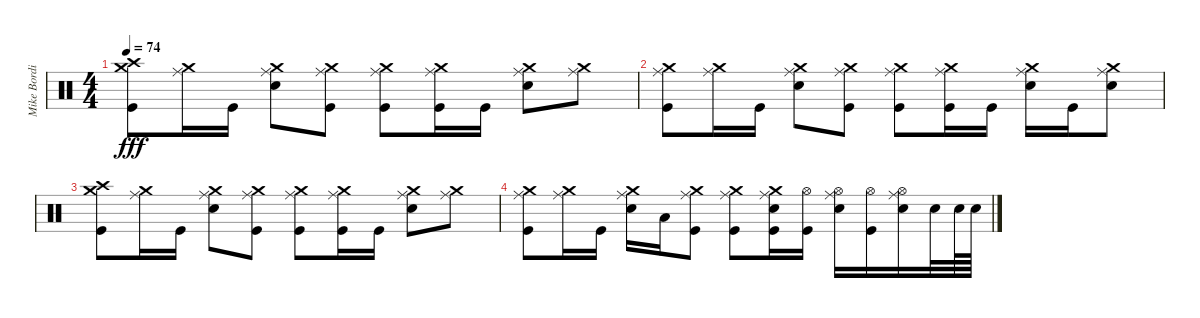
\track ("Mike Bordin" "Mike Bordi") {instrument percussion}
\staff {score}
\articulation defaults
\ts (4 4)
\tempo 74
\clef neutral
\ks c
("Crash medium (hit)" "Crash high (hit)" "Kick (hit)").8{dy fff} ("Crash medium (hit)" "Ride (middle)").16 "Kick (hit)".16 ("Crash medium (hit)" "Ride (middle)" "Snare (hit) 2").8 ("Crash medium (hit)" "Ride (middle)" "Kick (hit)").8 ("Crash medium (hit)" "Ride (middle)" "Kick (hit)").8 ("Crash medium (hit)" "Ride (middle)" "Kick (hit)").16 "Kick (hit)".16 ("Crash medium (hit)" "Ride (middle)" "Snare (hit) 2").8 ("Crash medium (hit)" "Ride (middle)").8 |
("Crash medium (hit)" "Ride (middle)" "Kick (hit)").8 ("Crash medium (hit)" "Ride (middle)").16 "Kick (hit)".16 ("Crash medium (hit)" "Ride (middle)" "Snare (hit) 2").8 ("Crash medium (hit)" "Ride (middle)" "Kick (hit)").8 ("Crash medium (hit)" "Ride (middle)" "Kick (hit)").8 ("Crash medium (hit)" "Ride (middle)" "Kick (hit)").16 "Kick (hit)".16 ("Crash medium (hit)" "Ride (middle)" "Snare (hit) 2").16 "Kick (hit)".16 ("Crash medium (hit)" "Ride (middle)" "Snare (hit) 2").8 |
("Crash medium (hit)" "Crash high (hit)" "Kick (hit)").8 ("Crash medium (hit)" "Ride (middle)").16 "Kick (hit)".16 ("Crash medium (hit)" "Ride (middle)" "Snare (hit) 2").8 ("Crash medium (hit)" "Ride (middle)" "Kick (hit)").8 ("Crash medium (hit)" "Ride (middle)" "Kick (hit)").8 ("Crash medium (hit)" "Ride (middle)" "Kick (hit)").16 "Kick (hit)".16 ("Crash medium (hit)" "Ride (middle)" "Snare (hit) 2").8 ("Crash medium (hit)" "Ride (middle)").8 |
("Crash medium (hit)" "Ride (middle)" "Kick (hit)").8 ("Crash medium (hit)" "Ride (middle)").16 "Kick (hit)".16 ("Crash medium (hit)" "Ride (middle)" "Snare (hit) 2").16 "Low Tom (hit)".16 ("Crash medium (hit)" "Ride (middle)" "Kick (hit)").8 ("Crash medium (hit)" "Ride (middle)" "Kick (hit)").8 ("Crash medium (hit)" "Ride (middle)" "Snare (hit) 2" "Kick (hit)").16 ("Hi-Hat (open)" "Kick (hit)").16 ("Hi-Hat (open)" "Ride (middle)" "Snare (hit) 2").16 ("Hi-Hat (open)" "Kick (hit)").16 ("Hi-Hat (open)" "Ride (middle)" "Snare (hit) 2").16 "Snare (hit) 2".32 "Snare (hit) 2".64 "Snare (hit) 2".64
